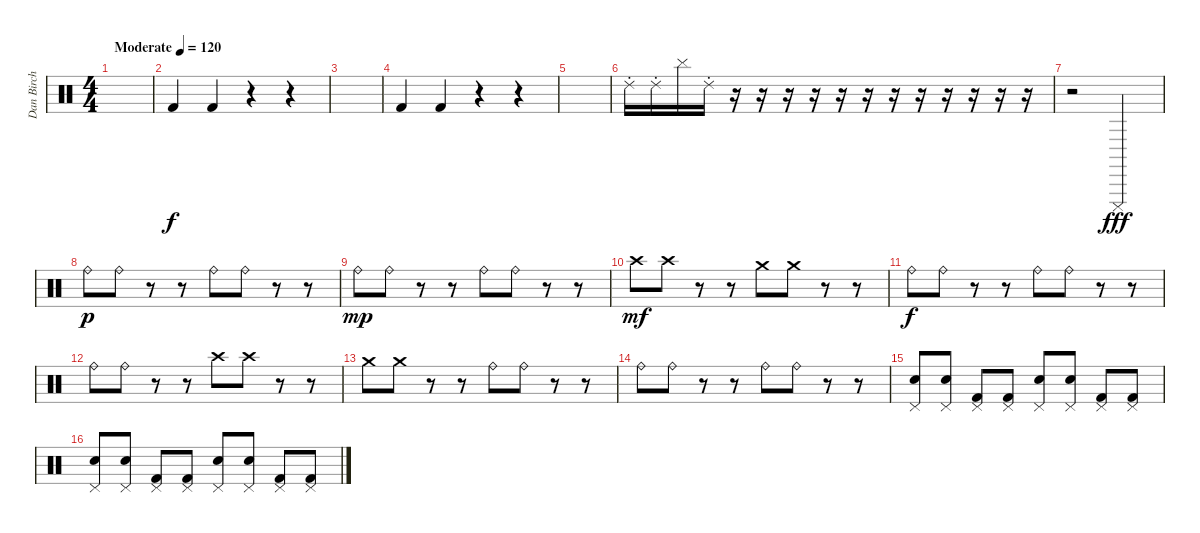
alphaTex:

\track ("Dan Birch" "Dan Birch") {instrument percussion}
\staff {score}
\articulation defaults
\ts (4 4)
\tempo (120 "Moderate")
\clef neutral
\ks c
|
"Kick (hit) 2".4 "Kick (hit) 2".4 r.4 r.4 |
|
"Kick (hit) 2".4 "Kick (hit) 2".4 r.4 r.4 |
|
"Ride (choke) 2".16 "Ride (choke) 2".16 "Cymbal (hit)".16 "Ride (choke) 2".16 r.16 r.16 r.16 r.16 r.16 r.16 r.16 r.16 r.16 r.16 r.16 r.16 |
r.2 "Cuica (mute)".2{dy fff} |
"Ride (bell)".8{dy p} "Ride (bell)".8 r.8 r.8 "Ride (bell)".8 "Ride (bell)".8 r.8 r.8 |
"Ride (bell)".8{dy mp} "Ride (bell)".8 r.8 r.8 "Ride (bell)".8 "Ride (bell)".8 r.8 r.8 |
"Crash high (hit)".8{dy mf} "Crash high (hit)".8 r.8 r.8 "Crash medium (hit)".8 "Crash medium (hit)".8 r.8 r.8 |
"Ride (bell)".8{dy f} "Ride (bell)".8 r.8 r.8 "Ride (bell)".8 "Ride (bell)".8 r.8 r.8 |
"Ride (bell)".8 "Ride (bell)".8 r.8 r.8 "Crash high (hit)".8 "Crash high (hit)".8 r.8 r.8 |
"Crash medium (hit)".8 "Crash medium (hit)".8 r.8 r.8 "Ride (bell)".8 "Ride (bell)".8 r.8 r.8 |
"Ride (bell)".8 "Ride (bell)".8 r.8 r.8 "Ride (bell)".8 "Ride (bell)".8 r.8 r.8 |
("Pedal Hi-Hat (hit)" "Snare (hit) 2").8 ("Pedal Hi-Hat (hit)" "Snare (hit) 2").8 ("Pedal Hi-Hat (hit)" "Kick (hit) 2").8 ("Pedal Hi-Hat (hit)" "Kick (hit) 2").8 ("Pedal Hi-Hat (hit)" "Snare (hit) 2").8 ("Pedal Hi-Hat (hit)" "Snare (hit) 2").8 ("Pedal Hi-Hat (hit)" "Kick (hit) 2").8 ("Pedal Hi-Hat (hit)" "Kick (hit) 2").8 |
("Pedal Hi-Hat (hit)" "Snare (hit) 2").8 ("Pedal Hi-Hat (hit)" "Snare (hit) 2").8 ("Pedal Hi-Hat (hit)" "Kick (hit) 2").8 ("Pedal Hi-Hat (hit)" "Kick (hit) 2").8 ("Pedal Hi-Hat (hit)" "Snare (hit) 2").8 ("Pedal Hi-Hat (hit)" "Snare (hit) 2").8 ("Pedal Hi-Hat (hit)" "Kick (hit) 2").8 ("Pedal Hi-Hat (hit)" "Kick (hit) 2").8
